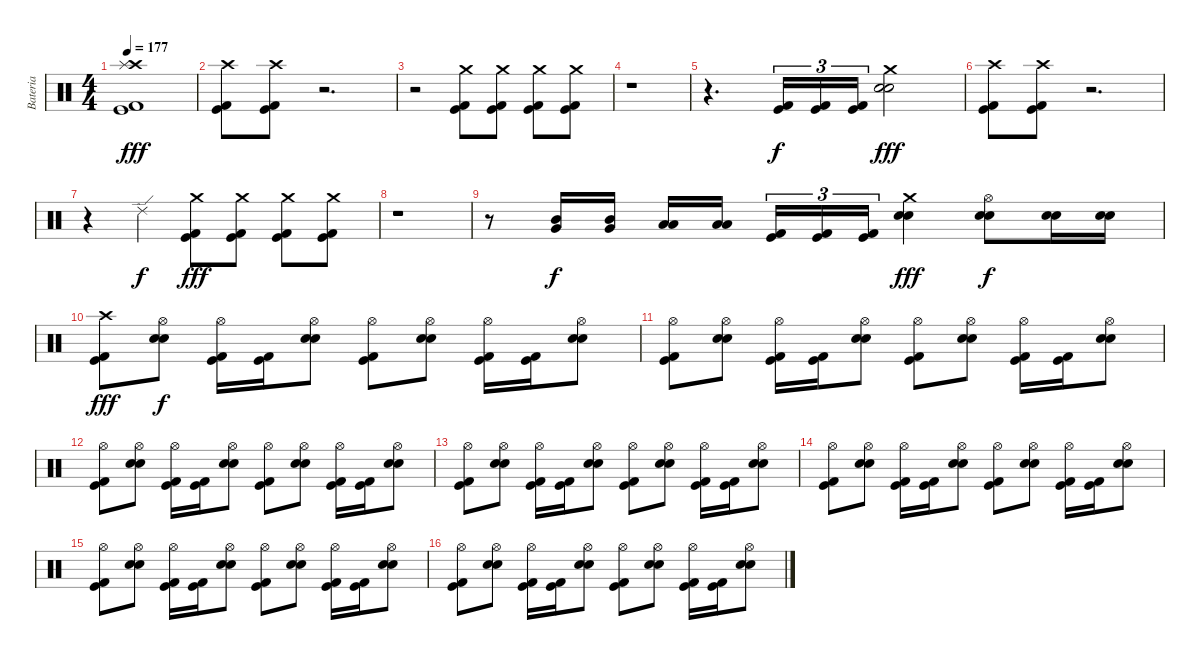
\track ("Bateria" "Bateria") {instrument percussion}
\staff {score}
\articulation defaults
\ts (4 4)
\tempo 177
\clef neutral
\ks c
("Crash high (hit)" "Splash (hit)" "Kick (hit) 2" "Kick (hit)").1{dy fff} |
("Crash high (hit)" "Kick (hit) 2" "Kick (hit)").8 ("Crash high (hit)" "Kick (hit) 2" "Kick (hit)").8 r.2{d} |
r.2 ("Crash medium (hit)" "Kick (hit) 2" "Kick (hit)").8 ("Crash medium (hit)" "Kick (hit) 2" "Kick (hit)").8 ("Crash medium (hit)" "Kick (hit) 2" "Kick (hit)").8 ("Crash medium (hit)" "Kick (hit) 2" "Kick (hit)").8 |
r.1 |
r.4{d} ("Kick (hit) 2" "Kick (hit)").16{tu (3 2) dy f} ("Kick (hit) 2" "Kick (hit)").16{tu (3 2)} ("Kick (hit) 2" "Kick (hit)").16{tu (3 2)} ("Crash medium (hit)" "Electric Snare (hit)" "Snare (hit) 2").2{dy fff} |
("Crash high (hit)" "Kick (hit) 2" "Kick (hit)").8 ("Crash high (hit)" "Kick (hit) 2" "Kick (hit)").8 r.2{d} |
r.4 "Ride (edge) 2".4{dy f} ("Crash medium (hit)" "Kick (hit) 2" "Kick (hit)").8{dy fff} ("Crash medium (hit)" "Kick (hit) 2" "Kick (hit)").8 ("Crash medium (hit)" "Kick (hit) 2" "Kick (hit)").8 ("Crash medium (hit)" "Kick (hit) 2" "Kick (hit)").8 |
r.1 |
r.8 ("Mid Tom (hit)" "Very Low Tom (hit)").16{dy f} ("Mid Tom (hit)" "Very Low Tom (hit)").16 ("Low Tom (hit)" "Low Floor Tom (hit)").16 ("Low Tom (hit)" "Low Floor Tom (hit)").16 ("Kick (hit) 2" "Kick (hit)").16{tu (3 2)} ("Kick (hit) 2" "Kick (hit)").16{tu (3 2)} ("Kick (hit) 2" "Kick (hit)").16{tu (3 2)} ("Crash medium (hit)" "Electric Snare (hit)" "Snare (hit) 2").4{dy fff} ("Hi-Hat (open)" "Electric Snare (hit)" "Snare (hit) 2").8{dy f} ("Electric Snare (hit)" "Snare (hit) 2").16 ("Electric Snare (hit)" "Snare (hit) 2").16 |
("Crash high (hit)" "Kick (hit) 2" "Kick (hit)").8{dy fff} ("Hi-Hat (open)" "Electric Snare (hit)" "Snare (hit) 2").8{dy f} ("Hi-Hat (open)" "Kick (hit) 2" "Kick (hit)").16 ("Kick (hit) 2" "Kick (hit)").16 ("Hi-Hat (open)" "Electric Snare (hit)" "Snare (hit) 2").8 ("Hi-Hat (open)" "Kick (hit) 2" "Kick (hit)").8 ("Hi-Hat (open)" "Electric Snare (hit)" "Snare (hit) 2").8 ("Hi-Hat (open)" "Kick (hit) 2" "Kick (hit)").16 ("Kick (hit) 2" "Kick (hit)").16 ("Hi-Hat (open)" "Electric Snare (hit)" "Snare (hit) 2").8 |
("Hi-Hat (open)" "Kick (hit) 2" "Kick (hit)").8 ("Hi-Hat (open)" "Electric Snare (hit)" "Snare (hit) 2").8 ("Hi-Hat (open)" "Kick (hit) 2" "Kick (hit)").16 ("Kick (hit) 2" "Kick (hit)").16 ("Hi-Hat (open)" "Electric Snare (hit)" "Snare (hit) 2").8 ("Hi-Hat (open)" "Kick (hit) 2" "Kick (hit)").8 ("Hi-Hat (open)" "Electric Snare (hit)" "Snare (hit) 2").8 ("Hi-Hat (open)" "Kick (hit) 2" "Kick (hit)").16 ("Kick (hit) 2" "Kick (hit)").16 ("Hi-Hat (open)" "Electric Snare (hit)" "Snare (hit) 2").8 |
("Hi-Hat (open)" "Kick (hit) 2" "Kick (hit)").8 ("Hi-Hat (open)" "Electric Snare (hit)" "Snare (hit) 2").8 ("Hi-Hat (open)" "Kick (hit) 2" "Kick (hit)").16 ("Kick (hit) 2" "Kick (hit)").16 ("Hi-Hat (open)" "Electric Snare (hit)" "Snare (hit) 2").8 ("Hi-Hat (open)" "Kick (hit) 2" "Kick (hit)").8 ("Hi-Hat (open)" "Electric Snare (hit)" "Snare (hit) 2").8 ("Hi-Hat (open)" "Kick (hit) 2" "Kick (hit)").16 ("Kick (hit) 2" "Kick (hit)").16 ("Hi-Hat (open)" "Electric Snare (hit)" "Snare (hit) 2").8 |
("Hi-Hat (open)" "Kick (hit) 2" "Kick (hit)").8 ("Hi-Hat (open)" "Electric Snare (hit)" "Snare (hit) 2").8 ("Hi-Hat (open)" "Kick (hit) 2" "Kick (hit)").16 ("Kick (hit) 2" "Kick (hit)").16 ("Hi-Hat (open)" "Electric Snare (hit)" "Snare (hit) 2").8 ("Hi-Hat (open)" "Kick (hit) 2" "Kick (hit)").8 ("Hi-Hat (open)" "Electric Snare (hit)" "Snare (hit) 2").8 ("Hi-Hat (open)" "Kick (hit) 2" "Kick (hit)").16 ("Kick (hit) 2" "Kick (hit)").16 ("Hi-Hat (open)" "Electric Snare (hit)" "Snare (hit) 2").8 |
("Hi-Hat (open)" "Kick (hit) 2" "Kick (hit)").8 ("Hi-Hat (open)" "Electric Snare (hit)" "Snare (hit) 2").8 ("Hi-Hat (open)" "Kick (hit) 2" "Kick (hit)").16 ("Kick (hit) 2" "Kick (hit)").16 ("Hi-Hat (open)" "Electric Snare (hit)" "Snare (hit) 2").8 ("Hi-Hat (open)" "Kick (hit) 2" "Kick (hit)").8 ("Hi-Hat (open)" "Electric Snare (hit)" "Snare (hit) 2").8 ("Hi-Hat (open)" "Kick (hit) 2" "Kick (hit)").16 ("Kick (hit) 2" "Kick (hit)").16 ("Hi-Hat (open)" "Electric Snare (hit)" "Snare (hit) 2").8 |
("Hi-Hat (open)" "Kick (hit) 2" "Kick (hit)").8 ("Hi-Hat (open)" "Electric Snare (hit)" "Snare (hit) 2").8 ("Hi-Hat (open)" "Kick (hit) 2" "Kick (hit)").16 ("Kick (hit) 2" "Kick (hit)").16 ("Hi-Hat (open)" "Electric Snare (hit)" "Snare (hit) 2").8 ("Hi-Hat (open)" "Kick (hit) 2" "Kick (hit)").8 ("Hi-Hat (open)" "Electric Snare (hit)" "Snare (hit) 2").8 ("Hi-Hat (open)" "Kick (hit) 2" "Kick (hit)").16 ("Kick (hit) 2" "Kick (hit)").16 ("Hi-Hat (open)" "Electric Snare (hit)" "Snare (hit) 2").8 |
("Hi-Hat (open)" "Kick (hit) 2" "Kick (hit)").8 ("Hi-Hat (open)" "Electric Snare (hit)" "Snare (hit) 2").8 ("Hi-Hat (open)" "Kick (hit) 2" "Kick (hit)").16 ("Kick (hit) 2" "Kick (hit)").16 ("Hi-Hat (open)" "Electric Snare (hit)" "Snare (hit) 2").8 ("Hi-Hat (open)" "Kick (hit) 2" "Kick (hit)").8 ("Hi-Hat (open)" "Electric Snare (hit)" "Snare (hit) 2").8 ("Hi-Hat (open)" "Kick (hit) 2" "Kick (hit)").16 ("Kick (hit) 2" "Kick (hit)").16 ("Hi-Hat (open)" "Electric Snare (hit)" "Snare (hit) 2").8
